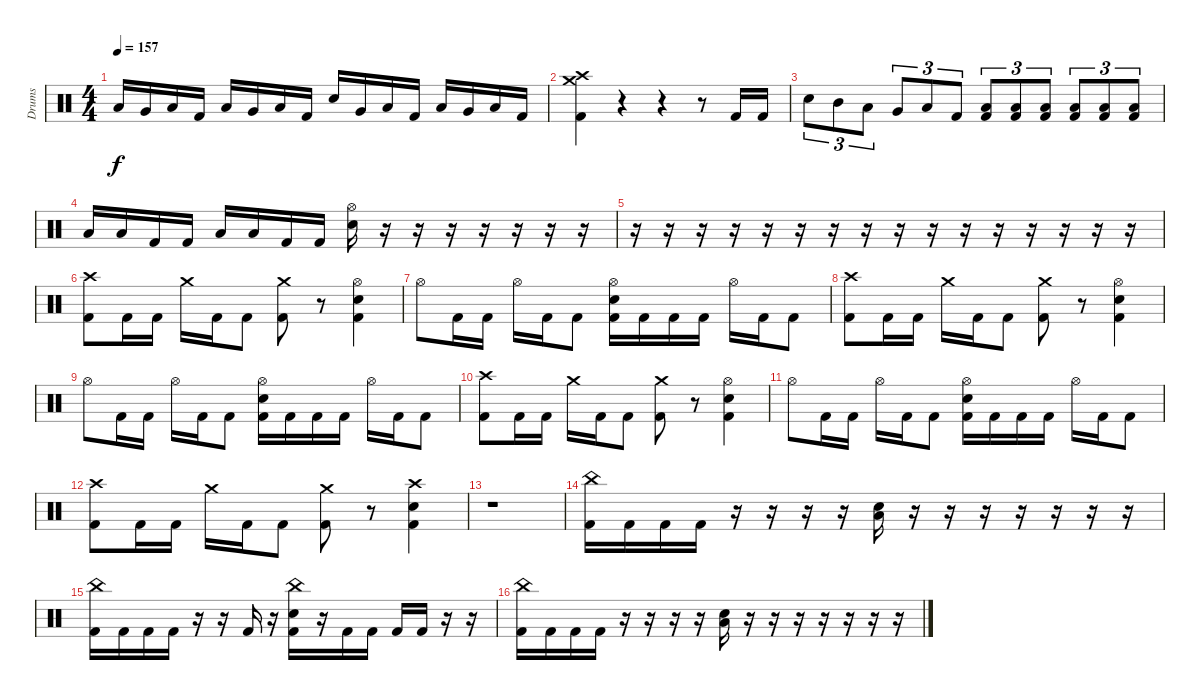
\track ("Drums" "Drums") {instrument percussion}
\staff {score}
\articulation defaults
\ts (4 4)
\tempo 157
\clef neutral
\ks c "Low Tom (hit)".16{dy f} "Very Low Tom (hit)".16 "Low Floor Tom (hit)".16 "Kick (hit) 2".16 "Low Tom (hit)".16 "Very Low Tom (hit)".16 "Low Floor Tom (hit)".16 "Kick (hit) 2".16 "Electric Snare (hit)".16 "Very Low Tom (hit)".16 "Low Floor Tom (hit)".16 "Kick (hit) 2".16 "Low Tom (hit)".16 "Very Low Tom (hit)".16 "Low Floor Tom (hit)".16 "Kick (hit) 2".16
|
("Crash medium (hit)" "Crash high (hit)" "Kick (hit) 2").4 r.4 r.4 r.8 "Kick (hit) 2".16 "Kick (hit) 2".16 |
"Electric Snare (hit)".8{tu (3 2)} "Mid Tom (hit)".8{tu (3 2)} "Low Tom (hit)".8{tu (3 2)} "Very Low Tom (hit)".8{tu (3 2)} "Low Floor Tom (hit)".8{tu (3 2)} "Kick (hit) 2".8{tu (3 2)} ("Low Floor Tom (hit)" "Kick (hit) 2").8{tu (3 2)} ("Low Floor Tom (hit)" "Kick (hit) 2").8{tu (3 2)} ("Low Floor Tom (hit)" "Kick (hit) 2").8{tu (3 2)} ("Low Floor Tom (hit)" "Kick (hit) 2").8{tu (3 2)} ("Low Floor Tom (hit)" "Kick (hit) 2").8{tu (3 2)} ("Low Floor Tom (hit)" "Kick (hit) 2").8{tu (3 2)} |
"Low Tom (hit)".16 "Low Tom (hit)".16 "Kick (hit) 2".16 "Kick (hit) 2".16 "Low Tom (hit)".16 "Low Tom (hit)".16 "Kick (hit) 2".16 "Kick (hit) 2".16 ("Hi-Hat (open)" "Electric Snare (hit)").16 r.16 r.16 r.16 r.16 r.16 r.16 r.16 |
r.16 r.16 r.16 r.16 r.16 r.16 r.16 r.16 r.16 r.16 r.16 r.16 r.16 r.16 r.16 r.16 |
("Crash high (hit)" "Kick (hit) 2").8 "Kick (hit) 2".16 "Kick (hit) 2".16 "Crash medium (hit)".16 "Kick (hit) 2".16 "Kick (hit) 2".8 ("Crash medium (hit)" "Kick (hit) 2").8 r.8 ("Hi-Hat (open)" "Electric Snare (hit)" "Kick (hit) 2").4 |
"Hi-Hat (open)".8 "Kick (hit) 2".16 "Kick (hit) 2".16 "Hi-Hat (open)".16 "Kick (hit) 2".16 "Kick (hit) 2".8 ("Hi-Hat (open)" "Electric Snare (hit)" "Kick (hit) 2").16 "Kick (hit) 2".16 "Kick (hit) 2".16 "Kick (hit) 2".16 "Hi-Hat (open)".16 "Kick (hit) 2".16 "Kick (hit) 2".8 |
("Crash high (hit)" "Kick (hit) 2").8 "Kick (hit) 2".16 "Kick (hit) 2".16 "Crash medium (hit)".16 "Kick (hit) 2".16 "Kick (hit) 2".8 ("Crash medium (hit)" "Kick (hit) 2").8 r.8 ("Hi-Hat (open)" "Electric Snare (hit)" "Kick (hit) 2").4 |
"Hi-Hat (open)".8 "Kick (hit) 2".16 "Kick (hit) 2".16 "Hi-Hat (open)".16 "Kick (hit) 2".16 "Kick (hit) 2".8 ("Hi-Hat (open)" "Electric Snare (hit)" "Kick (hit) 2").16 "Kick (hit) 2".16 "Kick (hit) 2".16 "Kick (hit) 2".16 "Hi-Hat (open)".16 "Kick (hit) 2".16 "Kick (hit) 2".8 |
("Crash high (hit)" "Kick (hit) 2").8 "Kick (hit) 2".16 "Kick (hit) 2".16 "Crash medium (hit)".16 "Kick (hit) 2".16 "Kick (hit) 2".8 ("Crash medium (hit)" "Kick (hit) 2").8 r.8 ("Hi-Hat (open)" "Electric Snare (hit)" "Kick (hit) 2").4 |
"Hi-Hat (open)".8 "Kick (hit) 2".16 "Kick (hit) 2".16 "Hi-Hat (open)".16 "Kick (hit) 2".16 "Kick (hit) 2".8 ("Hi-Hat (open)" "Electric Snare (hit)" "Kick (hit) 2").16 "Kick (hit) 2".16 "Kick (hit) 2".16 "Kick (hit) 2".16 "Hi-Hat (open)".16 "Kick (hit) 2".16 "Kick (hit) 2".8 |
("Crash high (hit)" "Kick (hit) 2").8 "Kick (hit) 2".16 "Kick (hit) 2".16 "Crash medium (hit)".16 "Kick (hit) 2".16 "Kick (hit) 2".8 ("Crash medium (hit)" "Kick (hit) 2").8 r.8 ("Crash high (hit)" "Electric Snare (hit)" "Kick (hit) 2").4 |
r.1 |
("China (hit)" "Kick (hit) 2").16 "Kick (hit) 2".16 "Kick (hit) 2".16 "Kick (hit) 2".16 r.16 r.16 r.16 r.16 ("Low Floor Tom (hit)" "Electric Snare (hit)").16 r.16 r.16 r.16 r.16 r.16 r.16 r.16 |
("China (hit)" "Kick (hit) 2").16 "Kick (hit) 2".16 "Kick (hit) 2".16 "Kick (hit) 2".16 r.16 r.16 "Kick (hit) 2".16 r.16 ("China (hit)" "Electric Snare (hit)" "Kick (hit) 2").16 r.16 "Kick (hit) 2".16 "Kick (hit) 2".16 "Kick (hit) 2".16 "Kick (hit) 2".16 r.16 r.16 |
("China (hit)" "Kick (hit) 2").16 "Kick (hit) 2".16 "Kick (hit) 2".16 "Kick (hit) 2".16 r.16 r.16 r.16 r.16 ("Low Floor Tom (hit)" "Electric Snare (hit)").16 r.16 r.16 r.16 r.16 r.16 r.16 r.16
